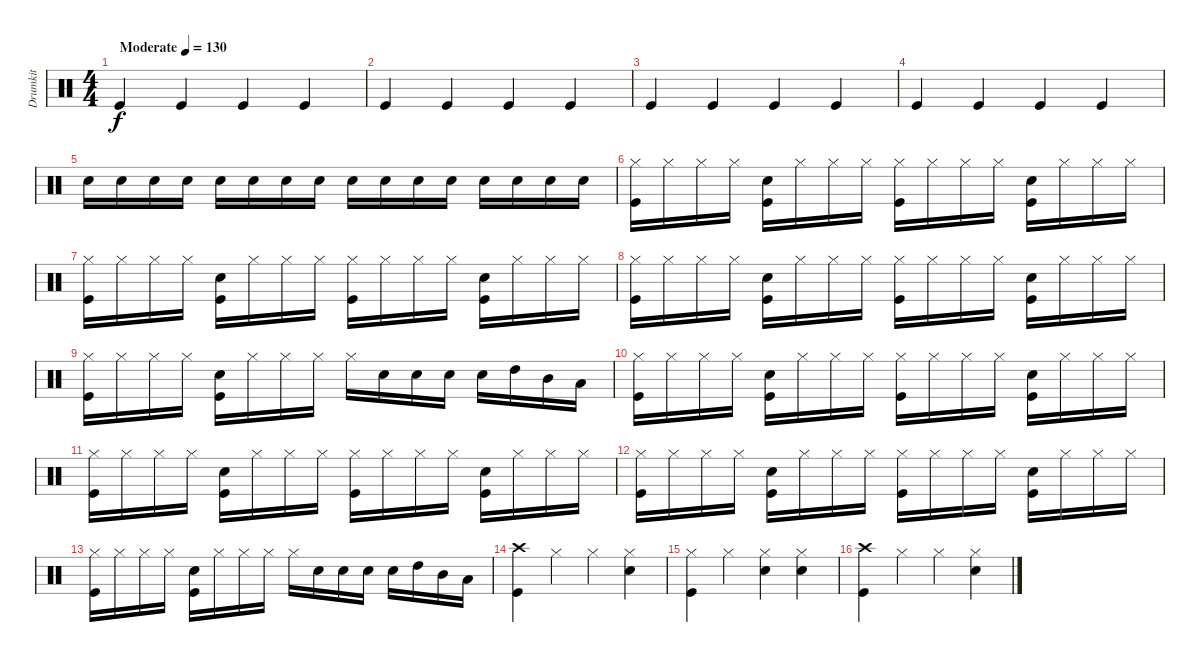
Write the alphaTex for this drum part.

\track ("Drumkit" "Drumkit") {instrument percussion}
\staff {score}
\articulation defaults
\ts (4 4)
\tempo (130 "Moderate")
\clef neutral
\ks c "Kick (hit)".4{dy f} "Kick (hit)".4 "Kick (hit)".4 "Kick (hit)".4
|
"Kick (hit)".4 "Kick (hit)".4 "Kick (hit)".4 "Kick (hit)".4 |
"Kick (hit)".4 "Kick (hit)".4 "Kick (hit)".4 "Kick (hit)".4 |
"Kick (hit)".4 "Kick (hit)".4 "Kick (hit)".4 "Kick (hit)".4 |
"Snare (hit) 2".16 "Snare (hit) 2".16 "Snare (hit) 2".16 "Snare (hit) 2".16 "Snare (hit) 2".16 "Snare (hit) 2".16 "Snare (hit) 2".16 "Snare (hit) 2".16 "Snare (hit) 2".16 "Snare (hit) 2".16 "Snare (hit) 2".16 "Snare (hit) 2".16 "Snare (hit) 2".16 "Snare (hit) 2".16 "Snare (hit) 2".16 "Snare (hit) 2".16 |
("Hi-Hat (closed)" "Kick (hit)").16 "Hi-Hat (closed)".16 "Hi-Hat (closed)".16 "Hi-Hat (closed)".16 ("Snare (hit) 2" "Kick (hit)").16 "Hi-Hat (closed)".16 "Hi-Hat (closed)".16 "Hi-Hat (closed)".16 ("Hi-Hat (closed)" "Kick (hit)").16 "Hi-Hat (closed)".16 "Hi-Hat (closed)".16 "Hi-Hat (closed)".16 ("Snare (hit) 2" "Kick (hit)").16 "Hi-Hat (closed)".16 "Hi-Hat (closed)".16 "Hi-Hat (closed)".16 |
("Hi-Hat (closed)" "Kick (hit)").16 "Hi-Hat (closed)".16 "Hi-Hat (closed)".16 "Hi-Hat (closed)".16 ("Snare (hit) 2" "Kick (hit)").16 "Hi-Hat (closed)".16 "Hi-Hat (closed)".16 "Hi-Hat (closed)".16 ("Hi-Hat (closed)" "Kick (hit)").16 "Hi-Hat (closed)".16 "Hi-Hat (closed)".16 "Hi-Hat (closed)".16 ("Snare (hit) 2" "Kick (hit)").16 "Hi-Hat (closed)".16 "Hi-Hat (closed)".16 "Hi-Hat (closed)".16 |
("Hi-Hat (closed)" "Kick (hit)").16 "Hi-Hat (closed)".16 "Hi-Hat (closed)".16 "Hi-Hat (closed)".16 ("Snare (hit) 2" "Kick (hit)").16 "Hi-Hat (closed)".16 "Hi-Hat (closed)".16 "Hi-Hat (closed)".16 ("Hi-Hat (closed)" "Kick (hit)").16 "Hi-Hat (closed)".16 "Hi-Hat (closed)".16 "Hi-Hat (closed)".16 ("Snare (hit) 2" "Kick (hit)").16 "Hi-Hat (closed)".16 "Hi-Hat (closed)".16 "Hi-Hat (closed)".16 |
("Hi-Hat (closed)" "Kick (hit)").16 "Hi-Hat (closed)".16 "Hi-Hat (closed)".16 "Hi-Hat (closed)".16 ("Snare (hit) 2" "Kick (hit)").16 "Hi-Hat (closed)".16 "Hi-Hat (closed)".16 "Hi-Hat (closed)".16 "Hi-Hat (closed)".16 "Snare (hit) 2".16 "Snare (hit) 2".16 "Snare (hit) 2".16 "Snare (hit) 2".16 "High Tom (hit)".16 "Mid Tom (hit)".16 "Low Tom (hit)".16 |
("Hi-Hat (closed)" "Kick (hit)").16 "Hi-Hat (closed)".16 "Hi-Hat (closed)".16 "Hi-Hat (closed)".16 ("Snare (hit) 2" "Kick (hit)").16 "Hi-Hat (closed)".16 "Hi-Hat (closed)".16 "Hi-Hat (closed)".16 ("Hi-Hat (closed)" "Kick (hit)").16 "Hi-Hat (closed)".16 "Hi-Hat (closed)".16 "Hi-Hat (closed)".16 ("Snare (hit) 2" "Kick (hit)").16 "Hi-Hat (closed)".16 "Hi-Hat (closed)".16 "Hi-Hat (closed)".16 |
("Hi-Hat (closed)" "Kick (hit)").16 "Hi-Hat (closed)".16 "Hi-Hat (closed)".16 "Hi-Hat (closed)".16 ("Snare (hit) 2" "Kick (hit)").16 "Hi-Hat (closed)".16 "Hi-Hat (closed)".16 "Hi-Hat (closed)".16 ("Hi-Hat (closed)" "Kick (hit)").16 "Hi-Hat (closed)".16 "Hi-Hat (closed)".16 "Hi-Hat (closed)".16 ("Snare (hit) 2" "Kick (hit)").16 "Hi-Hat (closed)".16 "Hi-Hat (closed)".16 "Hi-Hat (closed)".16 |
("Hi-Hat (closed)" "Kick (hit)").16 "Hi-Hat (closed)".16 "Hi-Hat (closed)".16 "Hi-Hat (closed)".16 ("Snare (hit) 2" "Kick (hit)").16 "Hi-Hat (closed)".16 "Hi-Hat (closed)".16 "Hi-Hat (closed)".16 ("Hi-Hat (closed)" "Kick (hit)").16 "Hi-Hat (closed)".16 "Hi-Hat (closed)".16 "Hi-Hat (closed)".16 ("Snare (hit) 2" "Kick (hit)").16 "Hi-Hat (closed)".16 "Hi-Hat (closed)".16 "Hi-Hat (closed)".16 |
("Hi-Hat (closed)" "Kick (hit)").16 "Hi-Hat (closed)".16 "Hi-Hat (closed)".16 "Hi-Hat (closed)".16 ("Snare (hit) 2" "Kick (hit)").16 "Hi-Hat (closed)".16 "Hi-Hat (closed)".16 "Hi-Hat (closed)".16 "Hi-Hat (closed)".16 "Snare (hit) 2".16 "Snare (hit) 2".16 "Snare (hit) 2".16 "Snare (hit) 2".16 "High Tom (hit)".16 "Mid Tom (hit)".16 "Low Tom (hit)".16 |
("Crash high (hit)" "Kick (hit)").4 "Hi-Hat (closed)".4 "Hi-Hat (closed)".4 ("Hi-Hat (closed)" "Snare (hit) 2").4 |
("Hi-Hat (closed)" "Kick (hit)").4 "Hi-Hat (closed)".4 ("Hi-Hat (closed)" "Snare (hit) 2").4 ("Hi-Hat (closed)" "Snare (hit) 2").4 |
("Crash high (hit)" "Kick (hit)").4 "Hi-Hat (closed)".4 "Hi-Hat (closed)".4 ("Hi-Hat (closed)" "Snare (hit) 2").4
